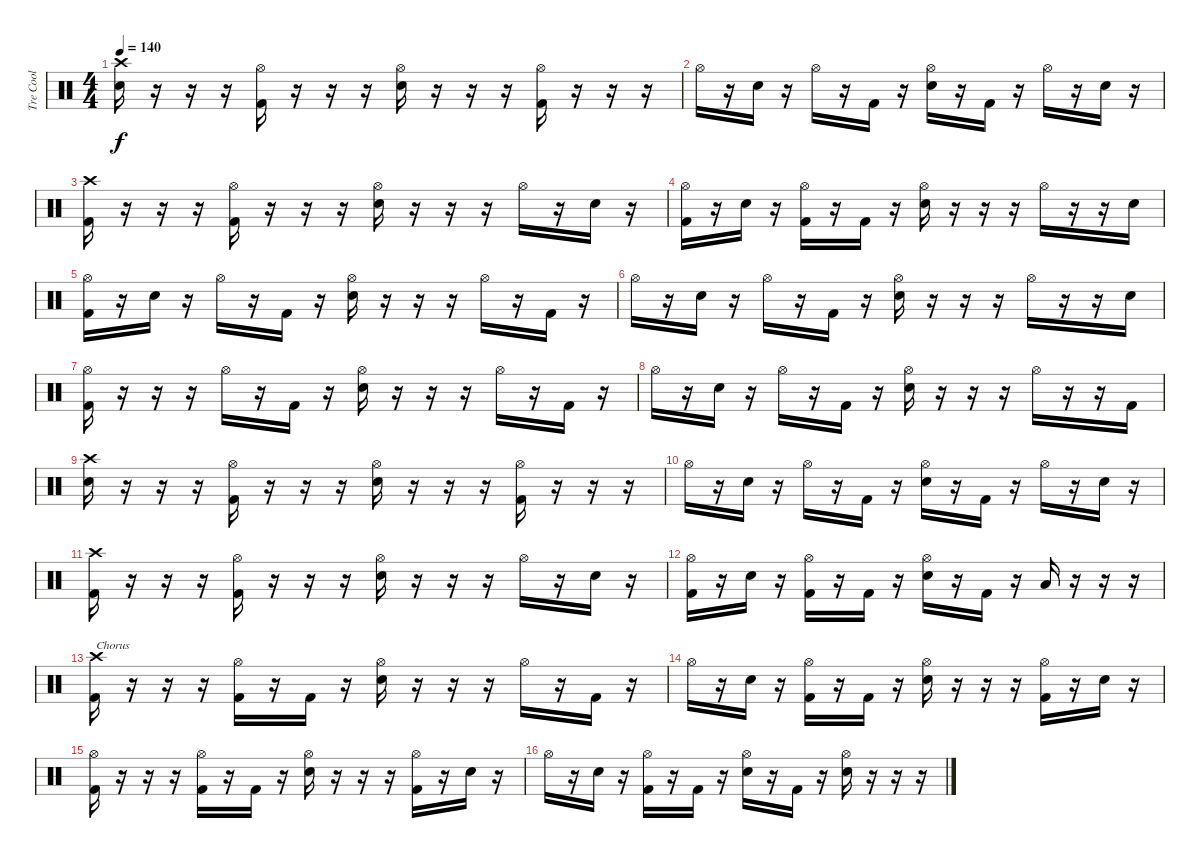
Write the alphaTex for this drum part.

\track ("Tre Cool" "Tre Cool") {instrument percussion}
\staff {score}
\articulation defaults
\ts (4 4)
\tempo 140
\clef neutral
\ks c
("Crash high (hit)" "Snare (hit) 2").16{dy f} r.16 r.16 r.16 ("Hi-Hat (open)" "Kick (hit) 2").16 r.16 r.16 r.16 ("Hi-Hat (open)" "Snare (hit) 2").16 r.16 r.16 r.16 ("Hi-Hat (open)" "Kick (hit) 2").16 r.16 r.16 r.16 |
"Hi-Hat (open)".16 r.16 "Snare (hit) 2".16 r.16 "Hi-Hat (open)".16 r.16 "Kick (hit) 2".16 r.16 ("Hi-Hat (open)" "Snare (hit) 2").16 r.16 "Kick (hit) 2".16 r.16 "Hi-Hat (open)".16 r.16 "Snare (hit) 2".16 r.16 |
("Crash high (hit)" "Kick (hit) 2").16 r.16 r.16 r.16 ("Hi-Hat (open)" "Kick (hit) 2").16 r.16 r.16 r.16 ("Hi-Hat (open)" "Snare (hit) 2").16 r.16 r.16 r.16 "Hi-Hat (open)".16 r.16 "Snare (hit) 2".16 r.16 |
("Hi-Hat (open)" "Kick (hit) 2").16 r.16 "Snare (hit) 2".16 r.16 ("Hi-Hat (open)" "Kick (hit) 2").16 r.16 "Kick (hit) 2".16 r.16 ("Hi-Hat (open)" "Snare (hit) 2").16 r.16 r.16 r.16 "Hi-Hat (open)".16 r.16 r.16 "Snare (hit) 2".16 |
("Hi-Hat (open)" "Kick (hit) 2").16 r.16 "Snare (hit) 2".16 r.16 "Hi-Hat (open)".16 r.16 "Kick (hit) 2".16 r.16 ("Hi-Hat (open)" "Snare (hit) 2").16 r.16 r.16 r.16 "Hi-Hat (open)".16 r.16 "Kick (hit) 2".16 r.16 |
"Hi-Hat (open)".16 r.16 "Snare (hit) 2".16 r.16 "Hi-Hat (open)".16 r.16 "Kick (hit) 2".16 r.16 ("Hi-Hat (open)" "Snare (hit) 2").16 r.16 r.16 r.16 "Hi-Hat (open)".16 r.16 r.16 "Snare (hit) 2".16 |
("Hi-Hat (open)" "Kick (hit) 2").16 r.16 r.16 r.16 "Hi-Hat (open)".16 r.16 "Kick (hit) 2".16 r.16 ("Hi-Hat (open)" "Snare (hit) 2").16 r.16 r.16 r.16 "Hi-Hat (open)".16 r.16 "Kick (hit) 2".16 r.16 |
"Hi-Hat (open)".16 r.16 "Snare (hit) 2".16 r.16 "Hi-Hat (open)".16 r.16 "Kick (hit) 2".16 r.16 ("Hi-Hat (open)" "Snare (hit) 2").16 r.16 r.16 r.16 "Hi-Hat (open)".16 r.16 r.16 "Kick (hit) 2".16 |
("Crash high (hit)" "Snare (hit) 2").16 r.16 r.16 r.16 ("Hi-Hat (open)" "Kick (hit) 2").16 r.16 r.16 r.16 ("Hi-Hat (open)" "Snare (hit) 2").16 r.16 r.16 r.16 ("Hi-Hat (open)" "Kick (hit) 2").16 r.16 r.16 r.16 |
"Hi-Hat (open)".16 r.16 "Snare (hit) 2".16 r.16 "Hi-Hat (open)".16 r.16 "Kick (hit) 2".16 r.16 ("Hi-Hat (open)" "Snare (hit) 2").16 r.16 "Kick (hit) 2".16 r.16 "Hi-Hat (open)".16 r.16 "Snare (hit) 2".16 r.16 |
("Crash high (hit)" "Kick (hit) 2").16 r.16 r.16 r.16 ("Hi-Hat (open)" "Kick (hit) 2").16 r.16 r.16 r.16 ("Hi-Hat (open)" "Snare (hit) 2").16 r.16 r.16 r.16 "Hi-Hat (open)".16 r.16 "Snare (hit) 2".16 r.16 |
("Hi-Hat (open)" "Kick (hit) 2").16 r.16 "Snare (hit) 2".16 r.16 ("Hi-Hat (open)" "Kick (hit) 2").16 r.16 "Kick (hit) 2".16 r.16 ("Hi-Hat (open)" "Snare (hit) 2").16 r.16 "Kick (hit) 2".16 r.16 "Low Floor Tom (hit)".16 r.16 r.16 r.16 |
("Crash high (hit)" "Kick (hit) 2").16{txt "Chorus"} r.16 r.16 r.16 ("Hi-Hat (open)" "Kick (hit) 2").16 r.16 "Kick (hit) 2".16 r.16 ("Hi-Hat (open)" "Snare (hit) 2").16 r.16 r.16 r.16 "Hi-Hat (open)".16 r.16 "Kick (hit) 2".16 r.16 |
"Hi-Hat (open)".16 r.16 "Snare (hit) 2".16 r.16 ("Hi-Hat (open)" "Kick (hit) 2").16 r.16 "Kick (hit) 2".16 r.16 ("Hi-Hat (open)" "Snare (hit) 2").16 r.16 r.16 r.16 ("Hi-Hat (open)" "Kick (hit) 2").16 r.16 "Snare (hit) 2".16 r.16 |
("Hi-Hat (open)" "Kick (hit) 2").16 r.16 r.16 r.16 ("Hi-Hat (open)" "Kick (hit) 2").16 r.16 "Kick (hit) 2".16 r.16 ("Hi-Hat (open)" "Snare (hit) 2").16 r.16 r.16 r.16 ("Hi-Hat (open)" "Kick (hit) 2").16 r.16 "Snare (hit) 2".16 r.16 |
"Hi-Hat (open)".16 r.16 "Snare (hit) 2".16 r.16 ("Hi-Hat (open)" "Kick (hit) 2").16 r.16 "Kick (hit) 2".16 r.16 ("Hi-Hat (open)" "Snare (hit) 2").16 r.16 "Kick (hit) 2".16 r.16 ("Hi-Hat (open)" "Snare (hit) 2").16 r.16 r.16 r.16
